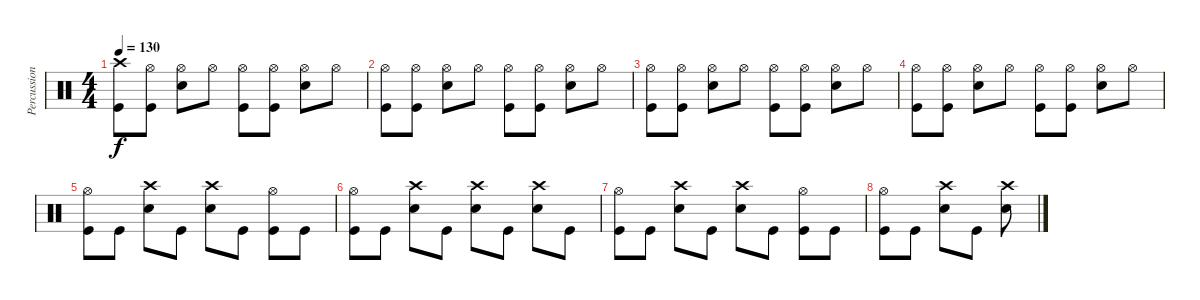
\track ("Percussion" "Percussion") {instrument percussion}
\staff {score}
\articulation defaults
\ts (4 4)
\tempo 130
\clef neutral
\ks c
("Crash high (hit)" "Kick (hit)").8{dy f} ("Hi-Hat (open)" "Kick (hit)").8 ("Hi-Hat (open)" "Electric Snare (hit)").8 "Hi-Hat (open)".8 ("Hi-Hat (open)" "Kick (hit)").8 ("Hi-Hat (open)" "Kick (hit)").8 ("Hi-Hat (open)" "Electric Snare (hit)").8 "Hi-Hat (open)".8 |
("Hi-Hat (open)" "Kick (hit)").8 ("Hi-Hat (open)" "Kick (hit)").8 ("Hi-Hat (open)" "Electric Snare (hit)").8 "Hi-Hat (open)".8 ("Hi-Hat (open)" "Kick (hit)").8 ("Hi-Hat (open)" "Kick (hit)").8 ("Hi-Hat (open)" "Electric Snare (hit)").8 "Hi-Hat (open)".8 |
("Hi-Hat (open)" "Kick (hit)").8 ("Hi-Hat (open)" "Kick (hit)").8 ("Hi-Hat (open)" "Electric Snare (hit)").8 "Hi-Hat (open)".8 ("Hi-Hat (open)" "Kick (hit)").8 ("Hi-Hat (open)" "Kick (hit)").8 ("Hi-Hat (open)" "Electric Snare (hit)").8 "Hi-Hat (open)".8 |
("Hi-Hat (open)" "Kick (hit)").8 ("Hi-Hat (open)" "Kick (hit)").8 ("Hi-Hat (open)" "Electric Snare (hit)").8 "Hi-Hat (open)".8 ("Hi-Hat (open)" "Kick (hit)").8 ("Hi-Hat (open)" "Kick (hit)").8 ("Hi-Hat (open)" "Electric Snare (hit)").8 "Hi-Hat (open)".8 |
("Hi-Hat (open)" "Kick (hit)").8 "Kick (hit)".8 ("Crash high (hit)" "Electric Snare (hit)").8 "Kick (hit)".8 ("Crash high (hit)" "Electric Snare (hit)").8 "Kick (hit)".8 ("Hi-Hat (open)" "Kick (hit)").8 "Kick (hit)".8 |
("Hi-Hat (open)" "Kick (hit)").8 "Kick (hit)".8 ("Crash high (hit)" "Electric Snare (hit)").8 "Kick (hit)".8 ("Crash high (hit)" "Electric Snare (hit)").8 "Kick (hit)".8 ("Crash high (hit)" "Electric Snare (hit)").8 "Kick (hit)".8 |
("Hi-Hat (open)" "Kick (hit)").8 "Kick (hit)".8 ("Crash high (hit)" "Electric Snare (hit)").8 "Kick (hit)".8 ("Crash high (hit)" "Electric Snare (hit)").8 "Kick (hit)".8 ("Hi-Hat (open)" "Kick (hit)").8 "Kick (hit)".8 |
("Hi-Hat (open)" "Kick (hit)").8 "Kick (hit)".8 ("Crash high (hit)" "Electric Snare (hit)").8 "Kick (hit)".8 ("Crash high (hit)" "Electric Snare (hit)").8
